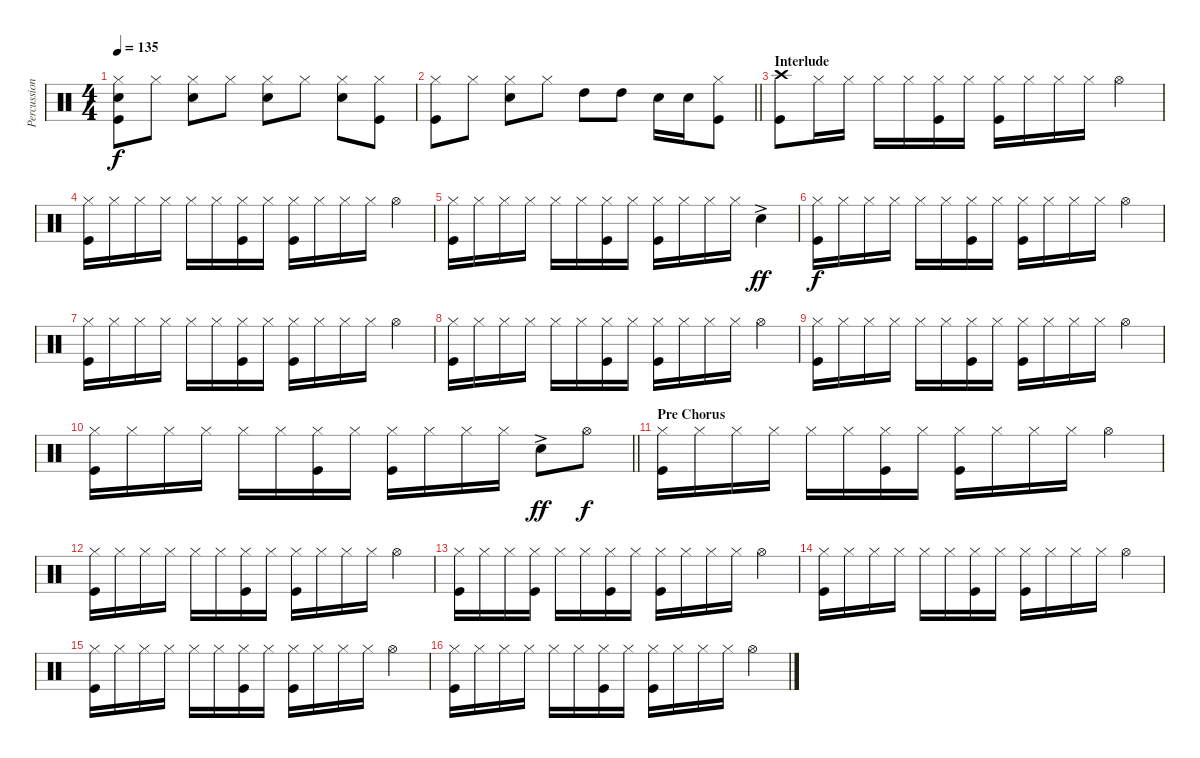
\track ("Percussion" "Percussion") {instrument percussion}
\staff {score}
\articulation defaults
\ts (4 4)
\tempo 135
\clef neutral
\ks c
("Kick (hit)" "Hi-Hat (closed)" "Snare (hit) 2").8{dy f} "Hi-Hat (closed)".8 ("Hi-Hat (closed)" "Snare (hit) 2").8 "Hi-Hat (closed)".8 ("Hi-Hat (closed)" "Snare (hit) 2").8 "Hi-Hat (closed)".8 ("Hi-Hat (closed)" "Snare (hit) 2").8 ("Kick (hit)" "Hi-Hat (closed)").8 |
\barLineRight lightlight
("Kick (hit)" "Hi-Hat (closed)").8 "Hi-Hat (closed)".8 ("Hi-Hat (closed)" "Snare (hit) 2").8 "Hi-Hat (closed)".8 "High Tom (hit)".8 "High Tom (hit)".8 "Snare (hit) 2".16 "Snare (hit) 2".16 ("Kick (hit)" "Hi-Hat (closed)").8 |
\section ("" "Interlude")
("Kick (hit)" "Crash high (hit)").8 "Hi-Hat (closed)".16 "Hi-Hat (closed)".16 "Hi-Hat (closed)".16 "Hi-Hat (closed)".16 ("Kick (hit)" "Hi-Hat (closed)").16 "Hi-Hat (closed)".16 ("Kick (hit)" "Hi-Hat (closed)").16 "Hi-Hat (closed)".16 "Hi-Hat (closed)".16 "Hi-Hat (closed)".16 "Hi-Hat (open)".4 |
("Kick (hit)" "Hi-Hat (closed)").16 "Hi-Hat (closed)".16 "Hi-Hat (closed)".16 "Hi-Hat (closed)".16 "Hi-Hat (closed)".16 "Hi-Hat (closed)".16 ("Kick (hit)" "Hi-Hat (closed)").16 "Hi-Hat (closed)".16 ("Kick (hit)" "Hi-Hat (closed)").16 "Hi-Hat (closed)".16 "Hi-Hat (closed)".16 "Hi-Hat (closed)".16 "Hi-Hat (open)".4 |
("Kick (hit)" "Hi-Hat (closed)").16 "Hi-Hat (closed)".16 "Hi-Hat (closed)".16 "Hi-Hat (closed)".16 "Hi-Hat (closed)".16 "Hi-Hat (closed)".16 ("Kick (hit)" "Hi-Hat (closed)").16 "Hi-Hat (closed)".16 ("Kick (hit)" "Hi-Hat (closed)").16 "Hi-Hat (closed)".16 "Hi-Hat (closed)".16 "Hi-Hat (closed)".16 "Snare (hit) 2"{ac}.4{dy ff} |
("Kick (hit)" "Hi-Hat (closed)").16{dy f} "Hi-Hat (closed)".16 "Hi-Hat (closed)".16 "Hi-Hat (closed)".16 "Hi-Hat (closed)".16 "Hi-Hat (closed)".16 ("Kick (hit)" "Hi-Hat (closed)").16 "Hi-Hat (closed)".16 ("Kick (hit)" "Hi-Hat (closed)").16 "Hi-Hat (closed)".16 "Hi-Hat (closed)".16 "Hi-Hat (closed)".16 "Hi-Hat (open)".4 |
("Kick (hit)" "Hi-Hat (closed)").16 "Hi-Hat (closed)".16 "Hi-Hat (closed)".16 "Hi-Hat (closed)".16 "Hi-Hat (closed)".16 "Hi-Hat (closed)".16 ("Kick (hit)" "Hi-Hat (closed)").16 "Hi-Hat (closed)".16 ("Kick (hit)" "Hi-Hat (closed)").16 "Hi-Hat (closed)".16 "Hi-Hat (closed)".16 "Hi-Hat (closed)".16 "Hi-Hat (open)".4 |
("Kick (hit)" "Hi-Hat (closed)").16 "Hi-Hat (closed)".16 "Hi-Hat (closed)".16 "Hi-Hat (closed)".16 "Hi-Hat (closed)".16 "Hi-Hat (closed)".16 ("Kick (hit)" "Hi-Hat (closed)").16 "Hi-Hat (closed)".16 ("Kick (hit)" "Hi-Hat (closed)").16 "Hi-Hat (closed)".16 "Hi-Hat (closed)".16 "Hi-Hat (closed)".16 "Hi-Hat (open)".4 |
("Kick (hit)" "Hi-Hat (closed)").16 "Hi-Hat (closed)".16 "Hi-Hat (closed)".16 "Hi-Hat (closed)".16 "Hi-Hat (closed)".16 "Hi-Hat (closed)".16 ("Kick (hit)" "Hi-Hat (closed)").16 "Hi-Hat (closed)".16 ("Kick (hit)" "Hi-Hat (closed)").16 "Hi-Hat (closed)".16 "Hi-Hat (closed)".16 "Hi-Hat (closed)".16 "Hi-Hat (open)".4 |
\barLineRight lightlight
("Kick (hit)" "Hi-Hat (closed)").16 "Hi-Hat (closed)".16 "Hi-Hat (closed)".16 "Hi-Hat (closed)".16 "Hi-Hat (closed)".16 "Hi-Hat (closed)".16 ("Kick (hit)" "Hi-Hat (closed)").16 "Hi-Hat (closed)".16 ("Kick (hit)" "Hi-Hat (closed)").16 "Hi-Hat (closed)".16 "Hi-Hat (closed)".16 "Hi-Hat (closed)".16 "Snare (hit) 2"{ac}.8{dy ff} "Hi-Hat (open)".8{dy f} |
\section ("" "Pre Chorus")
("Kick (hit)" "Hi-Hat (closed)").16 "Hi-Hat (closed)".16 "Hi-Hat (closed)".16 "Hi-Hat (closed)".16 "Hi-Hat (closed)".16 "Hi-Hat (closed)".16 ("Kick (hit)" "Hi-Hat (closed)").16 "Hi-Hat (closed)".16 ("Kick (hit)" "Hi-Hat (closed)").16 "Hi-Hat (closed)".16 "Hi-Hat (closed)".16 "Hi-Hat (closed)".16 "Hi-Hat (open)".4 |
("Kick (hit)" "Hi-Hat (closed)").16 "Hi-Hat (closed)".16 "Hi-Hat (closed)".16 "Hi-Hat (closed)".16 "Hi-Hat (closed)".16 "Hi-Hat (closed)".16 ("Kick (hit)" "Hi-Hat (closed)").16 "Hi-Hat (closed)".16 ("Kick (hit)" "Hi-Hat (closed)").16 "Hi-Hat (closed)".16 "Hi-Hat (closed)".16 "Hi-Hat (closed)".16 "Hi-Hat (open)".4 |
("Kick (hit)" "Hi-Hat (closed)").16 "Hi-Hat (closed)".16 "Hi-Hat (closed)".16 ("Kick (hit)" "Hi-Hat (closed)").16 "Hi-Hat (closed)".16 "Hi-Hat (closed)".16 ("Kick (hit)" "Hi-Hat (closed)").16 "Hi-Hat (closed)".16 ("Kick (hit)" "Hi-Hat (closed)").16 "Hi-Hat (closed)".16 "Hi-Hat (closed)".16 "Hi-Hat (closed)".16 "Hi-Hat (open)".4 |
("Kick (hit)" "Hi-Hat (closed)").16 "Hi-Hat (closed)".16 "Hi-Hat (closed)".16 "Hi-Hat (closed)".16 "Hi-Hat (closed)".16 "Hi-Hat (closed)".16 ("Kick (hit)" "Hi-Hat (closed)").16 "Hi-Hat (closed)".16 ("Kick (hit)" "Hi-Hat (closed)").16 "Hi-Hat (closed)".16 "Hi-Hat (closed)".16 "Hi-Hat (closed)".16 "Hi-Hat (open)".4 |
("Kick (hit)" "Hi-Hat (closed)").16 "Hi-Hat (closed)".16 "Hi-Hat (closed)".16 "Hi-Hat (closed)".16 "Hi-Hat (closed)".16 "Hi-Hat (closed)".16 ("Kick (hit)" "Hi-Hat (closed)").16 "Hi-Hat (closed)".16 ("Kick (hit)" "Hi-Hat (closed)").16 "Hi-Hat (closed)".16 "Hi-Hat (closed)".16 "Hi-Hat (closed)".16 "Hi-Hat (open)".4 |
("Kick (hit)" "Hi-Hat (closed)").16 "Hi-Hat (closed)".16 "Hi-Hat (closed)".16 "Hi-Hat (closed)".16 "Hi-Hat (closed)".16 "Hi-Hat (closed)".16 ("Kick (hit)" "Hi-Hat (closed)").16 "Hi-Hat (closed)".16 ("Kick (hit)" "Hi-Hat (closed)").16 "Hi-Hat (closed)".16 "Hi-Hat (closed)".16 "Hi-Hat (closed)".16 "Hi-Hat (open)".4
